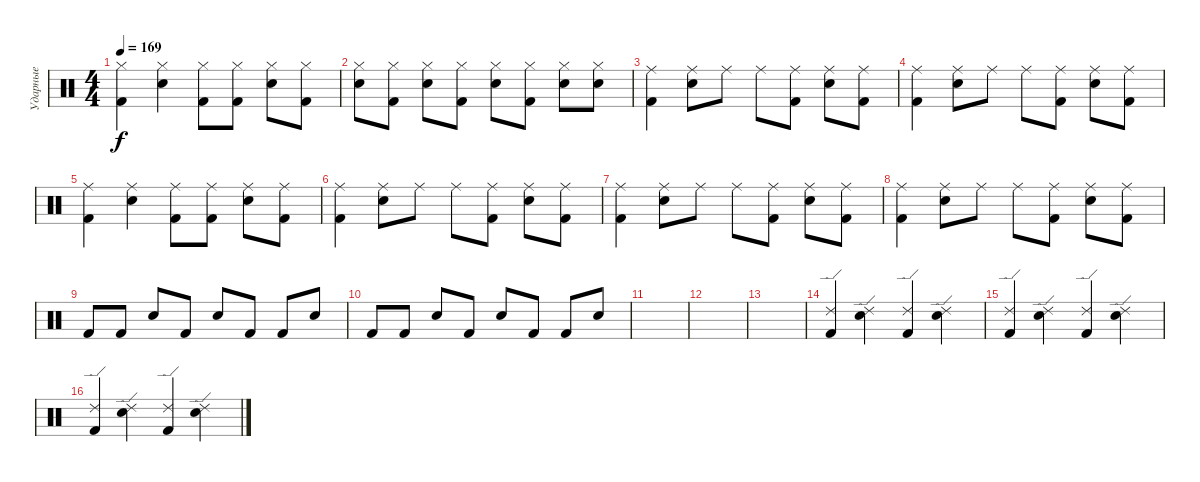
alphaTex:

\track ("Ударные" "Ударные") {instrument percussion}
\staff {score}
\articulation defaults
\ts (4 4)
\tempo 169
\clef neutral
\ks c
("Kick (hit) 2" "Hi-Hat (closed)").4{dy f} ("Electric Snare (hit)" "Hi-Hat (closed)").4 ("Kick (hit) 2" "Hi-Hat (closed)").8 ("Kick (hit) 2" "Hi-Hat (closed)").8 ("Electric Snare (hit)" "Hi-Hat (closed)").8 ("Kick (hit) 2" "Hi-Hat (closed)").8 |
("Electric Snare (hit)" "Hi-Hat (closed)").8 ("Kick (hit) 2" "Hi-Hat (closed)").8 ("Electric Snare (hit)" "Hi-Hat (closed)").8 ("Kick (hit) 2" "Hi-Hat (closed)").8 ("Electric Snare (hit)" "Hi-Hat (closed)").8 ("Kick (hit) 2" "Hi-Hat (closed)").8 ("Electric Snare (hit)" "Hi-Hat (closed)").8 ("Electric Snare (hit)" "Hi-Hat (closed)").8 |
("Kick (hit) 2" "Ride (middle)").4 ("Electric Snare (hit)" "Ride (middle)").8 "Ride (middle)".8 "Ride (middle)".8 ("Kick (hit) 2" "Ride (middle)").8 ("Electric Snare (hit)" "Ride (middle)").8 ("Kick (hit) 2" "Ride (middle)").8 |
("Kick (hit) 2" "Ride (middle)").4 ("Electric Snare (hit)" "Ride (middle)").8 "Ride (middle)".8 "Ride (middle)".8 ("Kick (hit) 2" "Ride (middle)").8 ("Electric Snare (hit)" "Ride (middle)").8 ("Kick (hit) 2" "Ride (middle)").8 |
("Kick (hit) 2" "Ride (middle)").4 ("Electric Snare (hit)" "Ride (middle)").4 ("Kick (hit) 2" "Ride (middle)").8 ("Kick (hit) 2" "Ride (middle)").8 ("Electric Snare (hit)" "Ride (middle)").8 ("Kick (hit) 2" "Ride (middle)").8 |
("Kick (hit) 2" "Ride (middle)").4 ("Electric Snare (hit)" "Ride (middle)").8 "Ride (middle)".8 "Ride (middle)".8 ("Kick (hit) 2" "Ride (middle)").8 ("Electric Snare (hit)" "Ride (middle)").8 ("Kick (hit) 2" "Ride (middle)").8 |
("Kick (hit) 2" "Ride (middle)").4 ("Electric Snare (hit)" "Ride (middle)").8 "Ride (middle)".8 "Ride (middle)".8 ("Kick (hit) 2" "Ride (middle)").8 ("Electric Snare (hit)" "Ride (middle)").8 ("Kick (hit) 2" "Ride (middle)").8 |
("Kick (hit) 2" "Ride (middle)").4 ("Electric Snare (hit)" "Ride (middle)").8 "Ride (middle)".8 "Ride (middle)".8 ("Kick (hit) 2" "Ride (middle)").8 ("Electric Snare (hit)" "Ride (middle)").8 ("Kick (hit) 2" "Ride (middle)").8 |
"Kick (hit) 2".8 "Kick (hit) 2".8 "Electric Snare (hit)".8 "Kick (hit) 2".8 "Electric Snare (hit)".8 "Kick (hit) 2".8 "Kick (hit) 2".8 "Electric Snare (hit)".8 |
"Kick (hit) 2".8 "Kick (hit) 2".8 "Electric Snare (hit)".8 "Kick (hit) 2".8 "Electric Snare (hit)".8 "Kick (hit) 2".8 "Kick (hit) 2".8 "Electric Snare (hit)".8 |
|
|
|
("Kick (hit) 2" "Ride (edge) 2").4 ("Electric Snare (hit)" "Ride (edge) 2").4 ("Kick (hit) 2" "Ride (edge) 2").4 ("Electric Snare (hit)" "Ride (edge) 2").4 |
("Kick (hit) 2" "Ride (edge) 2").4 ("Electric Snare (hit)" "Ride (edge) 2").4 ("Kick (hit) 2" "Ride (edge) 2").4 ("Electric Snare (hit)" "Ride (edge) 2").4 |
("Kick (hit) 2" "Ride (edge) 2").4 ("Electric Snare (hit)" "Ride (edge) 2").4 ("Kick (hit) 2" "Ride (edge) 2").4 ("Electric Snare (hit)" "Ride (edge) 2").4
